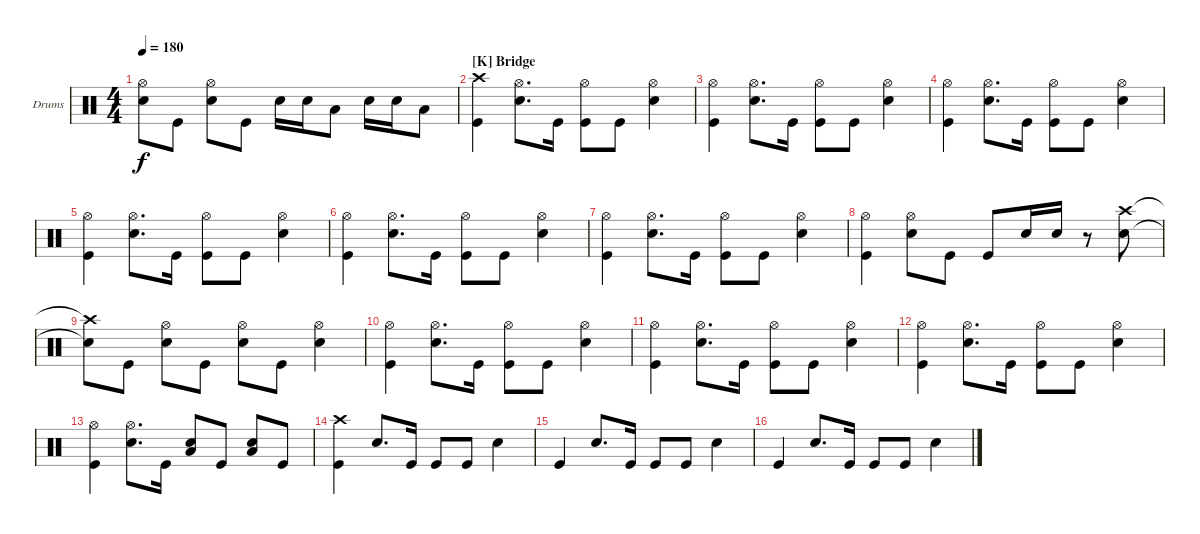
\defaultSystemsLayout 4
\bracketExtendMode groupsimilarinstruments
\firstSystemTrackNameOrientation horizontal
\otherSystemsTrackNameOrientation horizontal
\track ("Drumkit" "Drums") {instrument percussion}
\staff {score}
\articulation defaults
\ts (4 4)
\tempo 180
\clef neutral
\ks c
("Hi-Hat (open)" "Snare (hit) 2").8{dy f} "Kick (hit)".8 ("Hi-Hat (open)" "Snare (hit) 2").8 "Kick (hit)".8 "Snare (hit) 2".16 "Snare (hit) 2".16 "Low Tom (hit)".8 "Snare (hit) 2".16 "Snare (hit) 2".16 "Low Tom (hit)".8 |
\section ("K" "Bridge")
("Kick (hit)" "Crash high (hit)").4 ("Snare (hit) 2" "Hi-Hat (open)").8{d} "Kick (hit)".16 ("Kick (hit)" "Hi-Hat (open)").8 "Kick (hit)".8 ("Snare (hit) 2" "Hi-Hat (open)").4 |
("Kick (hit)" "Hi-Hat (open)").4 ("Snare (hit) 2" "Hi-Hat (open)").8{d} "Kick (hit)".16 ("Kick (hit)" "Hi-Hat (open)").8 "Kick (hit)".8 ("Snare (hit) 2" "Hi-Hat (open)").4 |
("Kick (hit)" "Hi-Hat (open)").4 ("Snare (hit) 2" "Hi-Hat (open)").8{d} "Kick (hit)".16 ("Kick (hit)" "Hi-Hat (open)").8 "Kick (hit)".8 ("Snare (hit) 2" "Hi-Hat (open)").4 |
("Kick (hit)" "Hi-Hat (open)").4 ("Snare (hit) 2" "Hi-Hat (open)").8{d} "Kick (hit)".16 ("Kick (hit)" "Hi-Hat (open)").8 "Kick (hit)".8 ("Snare (hit) 2" "Hi-Hat (open)").4 |
("Kick (hit)" "Hi-Hat (open)").4 ("Snare (hit) 2" "Hi-Hat (open)").8{d} "Kick (hit)".16 ("Kick (hit)" "Hi-Hat (open)").8 "Kick (hit)".8 ("Snare (hit) 2" "Hi-Hat (open)").4 |
("Kick (hit)" "Hi-Hat (open)").4 ("Snare (hit) 2" "Hi-Hat (open)").8{d} "Kick (hit)".16 ("Kick (hit)" "Hi-Hat (open)").8 "Kick (hit)".8 ("Snare (hit) 2" "Hi-Hat (open)").4 |
("Kick (hit)" "Hi-Hat (open)").4 ("Snare (hit) 2" "Hi-Hat (open)").8 "Kick (hit)".8 "Kick (hit)".8 "Snare (hit) 2".16 "Snare (hit) 2".16 r.8 ("Snare (hit) 2" "Crash high (hit)").8 |
("Snare (hit) 2"{t} "Crash high (hit)"{t}).8 "Kick (hit)".8 ("Hi-Hat (open)" "Snare (hit) 2").8 "Kick (hit)".8 ("Snare (hit) 2" "Hi-Hat (open)").8 "Kick (hit)".8 ("Snare (hit) 2" "Hi-Hat (open)").4 |
("Kick (hit)" "Hi-Hat (open)").4 ("Snare (hit) 2" "Hi-Hat (open)").8{d} "Kick (hit)".16 ("Kick (hit)" "Hi-Hat (open)").8 "Kick (hit)".8 ("Snare (hit) 2" "Hi-Hat (open)").4 |
("Kick (hit)" "Hi-Hat (open)").4 ("Snare (hit) 2" "Hi-Hat (open)").8{d} "Kick (hit)".16 ("Kick (hit)" "Hi-Hat (open)").8 "Kick (hit)".8 ("Snare (hit) 2" "Hi-Hat (open)").4 |
("Kick (hit)" "Hi-Hat (open)").4 ("Snare (hit) 2" "Hi-Hat (open)").8{d} "Kick (hit)".16 ("Kick (hit)" "Hi-Hat (open)").8 "Kick (hit)".8 ("Snare (hit) 2" "Hi-Hat (open)").4 |
("Kick (hit)" "Hi-Hat (open)").4 ("Snare (hit) 2" "Hi-Hat (open)").8{d} "Kick (hit)".16 ("Low Tom (hit)" "Snare (hit) 2").8 "Kick (hit)".8 ("Low Tom (hit)" "Snare (hit) 2").8 "Kick (hit)".8 |
("Kick (hit)" "Crash high (hit)").4 "Snare (hit) 2".8{d} "Kick (hit)".16 "Kick (hit)".8 "Kick (hit)".8 "Snare (hit) 2".4 |
"Kick (hit)".4 "Snare (hit) 2".8{d} "Kick (hit)".16 "Kick (hit)".8 "Kick (hit)".8 "Snare (hit) 2".4 |
"Kick (hit)".4 "Snare (hit) 2".8{d} "Kick (hit)".16 "Kick (hit)".8 "Kick (hit)".8 "Snare (hit) 2".4
